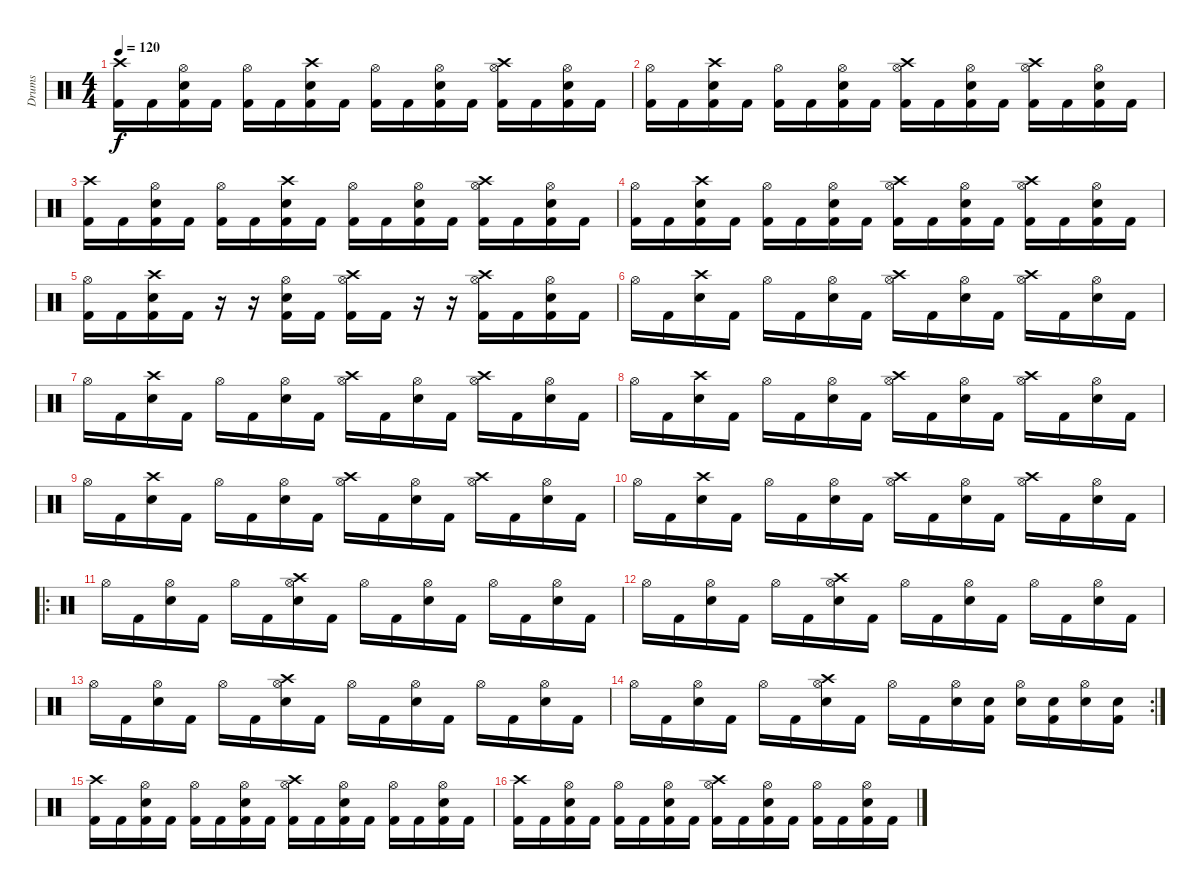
\track ("Drums" "Drums") {instrument percussion}
\staff {score}
\articulation defaults
\ts (4 4)
\tempo 120
\clef neutral
\ks c
("Kick (hit) 2" "Crash high (hit)").16{dy f} "Kick (hit) 2".16 ("Kick (hit) 2" "Snare (hit) 2" "Hi-Hat (open)").16 "Kick (hit) 2".16 ("Kick (hit) 2" "Hi-Hat (open)").16 "Kick (hit) 2".16 ("Kick (hit) 2" "Snare (hit) 2" "Crash high (hit)").16 "Kick (hit) 2".16 ("Kick (hit) 2" "Hi-Hat (open)").16 "Kick (hit) 2".16 ("Kick (hit) 2" "Snare (hit) 2" "Hi-Hat (open)").16 "Kick (hit) 2".16 ("Kick (hit) 2" "Hi-Hat (open)" "Crash high (hit)").16 "Kick (hit) 2".16 ("Kick (hit) 2" "Snare (hit) 2" "Hi-Hat (open)").16 "Kick (hit) 2".16 |
("Kick (hit) 2" "Hi-Hat (open)").16 "Kick (hit) 2".16 ("Kick (hit) 2" "Snare (hit) 2" "Crash high (hit)").16 "Kick (hit) 2".16 ("Kick (hit) 2" "Hi-Hat (open)").16 "Kick (hit) 2".16 ("Kick (hit) 2" "Snare (hit) 2" "Hi-Hat (open)").16 "Kick (hit) 2".16 ("Kick (hit) 2" "Hi-Hat (open)" "Crash high (hit)").16 "Kick (hit) 2".16 ("Kick (hit) 2" "Snare (hit) 2" "Hi-Hat (open)").16 "Kick (hit) 2".16 ("Kick (hit) 2" "Hi-Hat (open)" "Crash high (hit)").16 "Kick (hit) 2".16 ("Kick (hit) 2" "Snare (hit) 2" "Hi-Hat (open)").16 "Kick (hit) 2".16 |
("Kick (hit) 2" "Crash high (hit)").16 "Kick (hit) 2".16 ("Kick (hit) 2" "Snare (hit) 2" "Hi-Hat (open)").16 "Kick (hit) 2".16 ("Kick (hit) 2" "Hi-Hat (open)").16 "Kick (hit) 2".16 ("Kick (hit) 2" "Snare (hit) 2" "Crash high (hit)").16 "Kick (hit) 2".16 ("Kick (hit) 2" "Hi-Hat (open)").16 "Kick (hit) 2".16 ("Kick (hit) 2" "Snare (hit) 2" "Hi-Hat (open)").16 "Kick (hit) 2".16 ("Kick (hit) 2" "Hi-Hat (open)" "Crash high (hit)").16 "Kick (hit) 2".16 ("Kick (hit) 2" "Snare (hit) 2" "Hi-Hat (open)").16 "Kick (hit) 2".16 |
("Kick (hit) 2" "Hi-Hat (open)").16 "Kick (hit) 2".16 ("Kick (hit) 2" "Snare (hit) 2" "Crash high (hit)").16 "Kick (hit) 2".16 ("Kick (hit) 2" "Hi-Hat (open)").16 "Kick (hit) 2".16 ("Kick (hit) 2" "Snare (hit) 2" "Hi-Hat (open)").16 "Kick (hit) 2".16 ("Kick (hit) 2" "Hi-Hat (open)" "Crash high (hit)").16 "Kick (hit) 2".16 ("Kick (hit) 2" "Snare (hit) 2" "Hi-Hat (open)").16 "Kick (hit) 2".16 ("Kick (hit) 2" "Hi-Hat (open)" "Crash high (hit)").16 "Kick (hit) 2".16 ("Kick (hit) 2" "Snare (hit) 2" "Hi-Hat (open)").16 "Kick (hit) 2".16 |
("Kick (hit) 2" "Hi-Hat (open)").16 "Kick (hit) 2".16 ("Kick (hit) 2" "Snare (hit) 2" "Crash high (hit)").16 "Kick (hit) 2".16 r.16 r.16 ("Kick (hit) 2" "Snare (hit) 2" "Hi-Hat (open)").16 "Kick (hit) 2".16 ("Kick (hit) 2" "Hi-Hat (open)" "Crash high (hit)").16 "Kick (hit) 2".16 r.16 r.16 ("Kick (hit) 2" "Hi-Hat (open)" "Crash high (hit)").16 "Kick (hit) 2".16 ("Kick (hit) 2" "Snare (hit) 2" "Hi-Hat (open)").16 "Kick (hit) 2".16 |
"Hi-Hat (open)".16 "Kick (hit) 2".16 ("Snare (hit) 2" "Crash high (hit)").16 "Kick (hit) 2".16 "Hi-Hat (open)".16 "Kick (hit) 2".16 ("Snare (hit) 2" "Hi-Hat (open)").16 "Kick (hit) 2".16 ("Hi-Hat (open)" "Crash high (hit)").16 "Kick (hit) 2".16 ("Snare (hit) 2" "Hi-Hat (open)").16 "Kick (hit) 2".16 ("Hi-Hat (open)" "Crash high (hit)").16 "Kick (hit) 2".16 ("Snare (hit) 2" "Hi-Hat (open)").16 "Kick (hit) 2".16 |
"Hi-Hat (open)".16 "Kick (hit) 2".16 ("Snare (hit) 2" "Crash high (hit)").16 "Kick (hit) 2".16 "Hi-Hat (open)".16 "Kick (hit) 2".16 ("Snare (hit) 2" "Hi-Hat (open)").16 "Kick (hit) 2".16 ("Hi-Hat (open)" "Crash high (hit)").16 "Kick (hit) 2".16 ("Snare (hit) 2" "Hi-Hat (open)").16 "Kick (hit) 2".16 ("Hi-Hat (open)" "Crash high (hit)").16 "Kick (hit) 2".16 ("Snare (hit) 2" "Hi-Hat (open)").16 "Kick (hit) 2".16 |
"Hi-Hat (open)".16 "Kick (hit) 2".16 ("Snare (hit) 2" "Crash high (hit)").16 "Kick (hit) 2".16 "Hi-Hat (open)".16 "Kick (hit) 2".16 ("Snare (hit) 2" "Hi-Hat (open)").16 "Kick (hit) 2".16 ("Hi-Hat (open)" "Crash high (hit)").16 "Kick (hit) 2".16 ("Snare (hit) 2" "Hi-Hat (open)").16 "Kick (hit) 2".16 ("Hi-Hat (open)" "Crash high (hit)").16 "Kick (hit) 2".16 ("Snare (hit) 2" "Hi-Hat (open)").16 "Kick (hit) 2".16 |
"Hi-Hat (open)".16 "Kick (hit) 2".16 ("Snare (hit) 2" "Crash high (hit)").16 "Kick (hit) 2".16 "Hi-Hat (open)".16 "Kick (hit) 2".16 ("Snare (hit) 2" "Hi-Hat (open)").16 "Kick (hit) 2".16 ("Hi-Hat (open)" "Crash high (hit)").16 "Kick (hit) 2".16 ("Snare (hit) 2" "Hi-Hat (open)").16 "Kick (hit) 2".16 ("Hi-Hat (open)" "Crash high (hit)").16 "Kick (hit) 2".16 ("Snare (hit) 2" "Hi-Hat (open)").16 "Kick (hit) 2".16 |
"Hi-Hat (open)".16 "Kick (hit) 2".16 ("Snare (hit) 2" "Crash high (hit)").16 "Kick (hit) 2".16 "Hi-Hat (open)".16 "Kick (hit) 2".16 ("Snare (hit) 2" "Hi-Hat (open)").16 "Kick (hit) 2".16 ("Hi-Hat (open)" "Crash high (hit)").16 "Kick (hit) 2".16 ("Snare (hit) 2" "Hi-Hat (open)").16 "Kick (hit) 2".16 ("Hi-Hat (open)" "Crash high (hit)").16 "Kick (hit) 2".16 ("Snare (hit) 2" "Hi-Hat (open)").16 "Kick (hit) 2".16 |
\ro "Hi-Hat (open)".16 "Kick (hit) 2".16
("Snare (hit) 2" "Hi-Hat (open)").16 "Kick (hit) 2".16 "Hi-Hat (open)".16 "Kick (hit) 2".16 ("Snare (hit) 2" "Hi-Hat (open)" "Crash high (hit)").16 "Kick (hit) 2".16 "Hi-Hat (open)".16 "Kick (hit) 2".16 ("Snare (hit) 2" "Hi-Hat (open)").16 "Kick (hit) 2".16 "Hi-Hat (open)".16 "Kick (hit) 2".16 ("Snare (hit) 2" "Hi-Hat (open)").16 "Kick (hit) 2".16 |
"Hi-Hat (open)".16 "Kick (hit) 2".16 ("Snare (hit) 2" "Hi-Hat (open)").16 "Kick (hit) 2".16 "Hi-Hat (open)".16 "Kick (hit) 2".16 ("Snare (hit) 2" "Hi-Hat (open)" "Crash high (hit)").16 "Kick (hit) 2".16 "Hi-Hat (open)".16 "Kick (hit) 2".16 ("Snare (hit) 2" "Hi-Hat (open)").16 "Kick (hit) 2".16 "Hi-Hat (open)".16 "Kick (hit) 2".16 ("Snare (hit) 2" "Hi-Hat (open)").16 "Kick (hit) 2".16 |
"Hi-Hat (open)".16 "Kick (hit) 2".16 ("Snare (hit) 2" "Hi-Hat (open)").16 "Kick (hit) 2".16 "Hi-Hat (open)".16 "Kick (hit) 2".16 ("Snare (hit) 2" "Hi-Hat (open)" "Crash high (hit)").16 "Kick (hit) 2".16 "Hi-Hat (open)".16 "Kick (hit) 2".16 ("Snare (hit) 2" "Hi-Hat (open)").16 "Kick (hit) 2".16 "Hi-Hat (open)".16 "Kick (hit) 2".16 ("Snare (hit) 2" "Hi-Hat (open)").16 "Kick (hit) 2".16 |
\rc 2 "Hi-Hat (open)".16 "Kick (hit) 2".16
("Snare (hit) 2" "Hi-Hat (open)").16 "Kick (hit) 2".16 "Hi-Hat (open)".16 "Kick (hit) 2".16 ("Snare (hit) 2" "Hi-Hat (open)" "Crash high (hit)").16 "Kick (hit) 2".16 "Hi-Hat (open)".16 "Kick (hit) 2".16 ("Snare (hit) 2" "Hi-Hat (open)").16 ("Kick (hit) 2" "Snare (hit) 2").16 ("Hi-Hat (open)" "Snare (hit) 2").16 ("Kick (hit) 2" "Snare (hit) 2").16 ("Snare (hit) 2" "Hi-Hat (open)").16 ("Kick (hit) 2" "Snare (hit) 2").16 |
("Kick (hit) 2" "Crash high (hit)").16 "Kick (hit) 2".16 ("Kick (hit) 2" "Snare (hit) 2" "Hi-Hat (open)").16 "Kick (hit) 2".16 ("Kick (hit) 2" "Hi-Hat (open)").16 "Kick (hit) 2".16 ("Kick (hit) 2" "Snare (hit) 2" "Hi-Hat (open)").16 "Kick (hit) 2".16 ("Kick (hit) 2" "Hi-Hat (open)" "Crash high (hit)").16 "Kick (hit) 2".16 ("Kick (hit) 2" "Snare (hit) 2" "Hi-Hat (open)").16 "Kick (hit) 2".16 ("Kick (hit) 2" "Hi-Hat (open)").16 "Kick (hit) 2".16 ("Kick (hit) 2" "Snare (hit) 2" "Hi-Hat (open)").16 "Kick (hit) 2".16 |
("Kick (hit) 2" "Crash high (hit)").16 "Kick (hit) 2".16 ("Kick (hit) 2" "Snare (hit) 2" "Hi-Hat (open)").16 "Kick (hit) 2".16 ("Kick (hit) 2" "Hi-Hat (open)").16 "Kick (hit) 2".16 ("Kick (hit) 2" "Snare (hit) 2" "Hi-Hat (open)").16 "Kick (hit) 2".16 ("Kick (hit) 2" "Hi-Hat (open)" "Crash high (hit)").16 "Kick (hit) 2".16 ("Kick (hit) 2" "Snare (hit) 2" "Hi-Hat (open)").16 "Kick (hit) 2".16 ("Kick (hit) 2" "Hi-Hat (open)").16 "Kick (hit) 2".16 ("Kick (hit) 2" "Snare (hit) 2" "Hi-Hat (open)").16 "Kick (hit) 2".16
